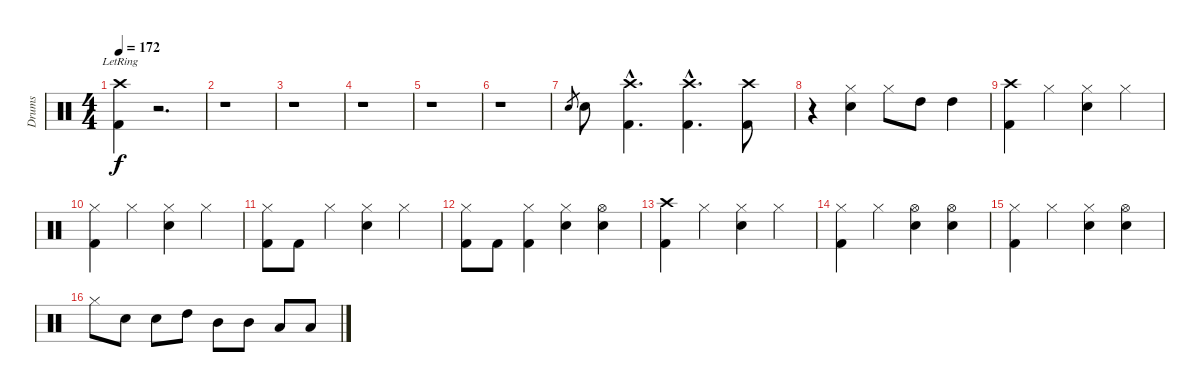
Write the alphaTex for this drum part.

\track ("Drums" "Drums") {instrument percussion}
\staff {score}
\articulation defaults
\ts (4 4)
\tempo 172
\clef neutral
\ks c
("Crash high (hit)"{lr} "Kick (hit) 2").4{dy f} r.2{d} |
r.1 |
r.1 |
r.1 |
r.1 |
r.1 |
"Electric Snare (hit)".8{gr} "Electric Snare (hit)".8 ("Crash high (hit)"{hac} "Kick (hit) 2"{hac}).4{d} ("Crash high (hit)"{hac} "Kick (hit) 2"{hac}).4{d} ("Crash high (hit)" "Kick (hit) 2").8 |
r.4 ("Hi-Hat (closed)" "Electric Snare (hit)").4 "Hi-Hat (closed)".8 "High Tom (hit)".8 "High Tom (hit)".4 |
("Crash high (hit)" "Kick (hit) 2").4 "Hi-Hat (closed)".4 ("Hi-Hat (closed)" "Electric Snare (hit)").4 "Hi-Hat (closed)".4 |
("Hi-Hat (closed)" "Kick (hit) 2").4 "Hi-Hat (closed)".4 ("Hi-Hat (closed)" "Electric Snare (hit)").4 "Hi-Hat (closed)".4 |
("Hi-Hat (closed)" "Kick (hit) 2").8 "Kick (hit) 2".8 "Hi-Hat (closed)".4 ("Hi-Hat (closed)" "Electric Snare (hit)").4 "Hi-Hat (closed)".4 |
("Hi-Hat (closed)" "Kick (hit) 2").8 "Kick (hit) 2".8 ("Hi-Hat (closed)" "Kick (hit) 2").4 ("Hi-Hat (closed)" "Electric Snare (hit)").4 ("Hi-Hat (open)" "Electric Snare (hit)").4 |
("Crash high (hit)" "Kick (hit) 2").4 "Hi-Hat (closed)".4 ("Hi-Hat (closed)" "Electric Snare (hit)").4 "Hi-Hat (closed)".4 |
("Hi-Hat (closed)" "Kick (hit) 2").4 "Hi-Hat (closed)".4 ("Hi-Hat (open)" "Electric Snare (hit)").4 ("Hi-Hat (open)" "Electric Snare (hit)").4 |
("Hi-Hat (closed)" "Kick (hit) 2").4 "Hi-Hat (closed)".4 ("Hi-Hat (closed)" "Electric Snare (hit)").4 ("Hi-Hat (open)" "Electric Snare (hit)").4 |
"Hi-Hat (closed)".8 "Electric Snare (hit)".8 "Electric Snare (hit)".8 "High Tom (hit)".8 "Mid Tom (hit)".8 "Mid Tom (hit)".8 "Low Tom (hit)".8 "Low Tom (hit)".8
